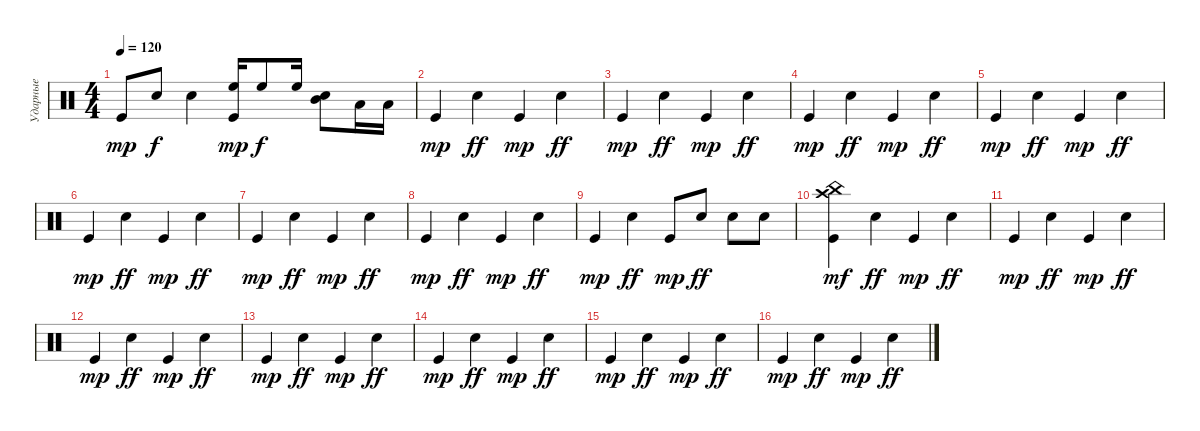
\track ("Ударные" "Ударные") {instrument percussion}
\staff {score}
\articulation defaults
\ts (4 4)
\tempo 120
\clef neutral
\ks c "Kick (hit)".8{dy mp} "Snare (hit) 2".8{dy f} "Snare (hit) 2".4
("High Floor Tom (hit)" "Kick (hit)").16{dy mp} "High Floor Tom (hit)".8{dy f} "High Floor Tom (hit)".16 ("Mid Tom (hit)" "Snare (hit) 2").8 "Low Tom (hit)".16 "Low Tom (hit)".16 |
"Kick (hit)".4{dy mp} "Snare (hit) 2".4{dy ff} "Kick (hit)".4{dy mp} "Snare (hit) 2".4{dy ff} |
"Kick (hit)".4{dy mp} "Snare (hit) 2".4{dy ff} "Kick (hit)".4{dy mp} "Snare (hit) 2".4{dy ff} |
"Kick (hit)".4{dy mp} "Snare (hit) 2".4{dy ff} "Kick (hit)".4{dy mp} "Snare (hit) 2".4{dy ff} |
"Kick (hit)".4{dy mp} "Snare (hit) 2".4{dy ff} "Kick (hit)".4{dy mp} "Snare (hit) 2".4{dy ff} |
"Kick (hit)".4{dy mp} "Snare (hit) 2".4{dy ff} "Kick (hit)".4{dy mp} "Snare (hit) 2".4{dy ff} |
"Kick (hit)".4{dy mp} "Snare (hit) 2".4{dy ff} "Kick (hit)".4{dy mp} "Snare (hit) 2".4{dy ff} |
"Kick (hit)".4{dy mp} "Snare (hit) 2".4{dy ff} "Kick (hit)".4{dy mp} "Snare (hit) 2".4{dy ff} |
"Kick (hit)".4{dy mp} "Snare (hit) 2".4{dy ff} "Kick (hit)".8{dy mp} "Snare (hit) 2".8{dy ff} "Snare (hit) 2".8 "Snare (hit) 2".8 |
("Kick (hit)" "Crash high (hit)" "China (hit)").4{dy mf} "Snare (hit) 2".4{dy ff} "Kick (hit)".4{dy mp} "Snare (hit) 2".4{dy ff} |
"Kick (hit)".4{dy mp} "Snare (hit) 2".4{dy ff} "Kick (hit)".4{dy mp} "Snare (hit) 2".4{dy ff} |
"Kick (hit)".4{dy mp} "Snare (hit) 2".4{dy ff} "Kick (hit)".4{dy mp} "Snare (hit) 2".4{dy ff} |
"Kick (hit)".4{dy mp} "Snare (hit) 2".4{dy ff} "Kick (hit)".4{dy mp} "Snare (hit) 2".4{dy ff} |
"Kick (hit)".4{dy mp} "Snare (hit) 2".4{dy ff} "Kick (hit)".4{dy mp} "Snare (hit) 2".4{dy ff} |
"Kick (hit)".4{dy mp} "Snare (hit) 2".4{dy ff} "Kick (hit)".4{dy mp} "Snare (hit) 2".4{dy ff} |
"Kick (hit)".4{dy mp} "Snare (hit) 2".4{dy ff} "Kick (hit)".4{dy mp} "Snare (hit) 2".4{dy ff}
